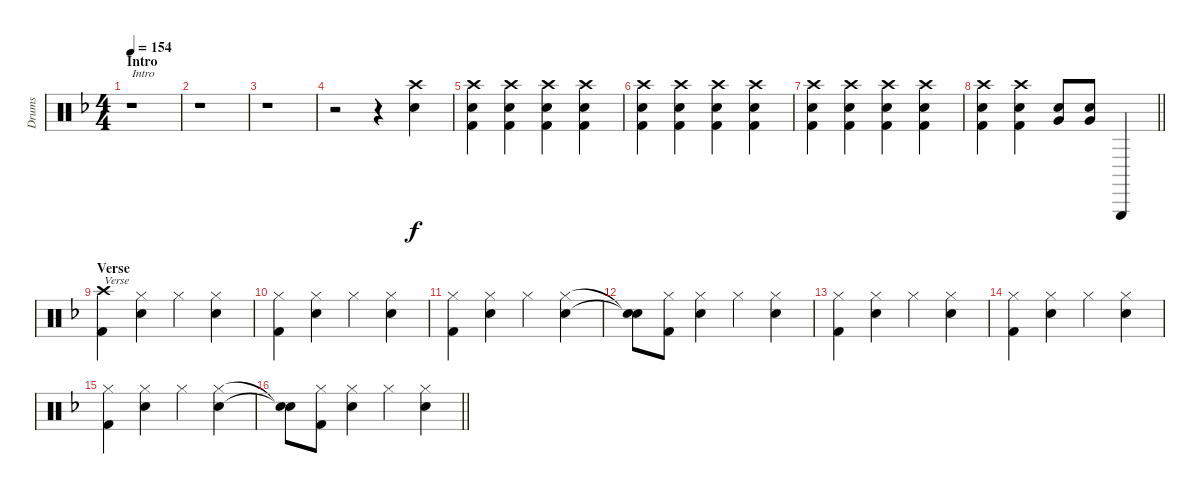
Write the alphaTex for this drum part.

\track ("Drums" "Drums") {instrument percussion}
\staff {score}
\articulation defaults
\ts (4 4)
\section ("" "Intro")
\tempo 154
\clef neutral
\ks f
r.1{txt "Intro" dy f} |
r.1 |
r.1 |
r.2 r.4 ("Crash high (hit)" "Snare (hit) 2").4 |
("Crash high (hit)" "Snare (hit) 2" "Kick (hit) 2").4 ("Crash high (hit)" "Snare (hit) 2" "Kick (hit) 2").4 ("Crash high (hit)" "Snare (hit) 2" "Kick (hit) 2").4 ("Crash high (hit)" "Snare (hit) 2" "Kick (hit) 2").4 |
("Crash high (hit)" "Snare (hit) 2" "Kick (hit) 2").4 ("Crash high (hit)" "Snare (hit) 2" "Kick (hit) 2").4 ("Crash high (hit)" "Snare (hit) 2" "Kick (hit) 2").4 ("Crash high (hit)" "Snare (hit) 2" "Kick (hit) 2").4 |
("Crash high (hit)" "Snare (hit) 2" "Kick (hit) 2").4 ("Crash high (hit)" "Snare (hit) 2" "Kick (hit) 2").4 ("Crash high (hit)" "Snare (hit) 2" "Kick (hit) 2").4 ("Crash high (hit)" "Snare (hit) 2" "Kick (hit) 2").4 |
\barLineRight lightlight
("Crash high (hit)" "Snare (hit) 2" "Kick (hit) 2").4 ("Crash high (hit)" "Snare (hit) 2" "Kick (hit) 2").4 ("Snare (hit) 2" "Very Low Tom (hit)").8 ("Snare (hit) 2" "Very Low Tom (hit)").8 "Triangle (hit)".4 |
\section ("" "Verse")
("Crash high (hit)" "Kick (hit) 2").4{txt "Verse"} ("Hi-Hat (closed)" "Snare (hit) 2").4 "Hi-Hat (closed)".4 ("Hi-Hat (closed)" "Snare (hit) 2").4 |
("Hi-Hat (closed)" "Kick (hit) 2").4 ("Hi-Hat (closed)" "Snare (hit) 2").4 "Hi-Hat (closed)".4 ("Hi-Hat (closed)" "Snare (hit) 2").4 |
("Hi-Hat (closed)" "Kick (hit) 2").4 ("Hi-Hat (closed)" "Snare (hit) 2").4 "Hi-Hat (closed)".4 ("Hi-Hat (closed)" "Snare (hit) 2").4 |
("Snare (hit)"{t} "Snare (hit)"{t}).8 ("Hi-Hat (closed)" "Kick (hit) 2").8 ("Hi-Hat (closed)" "Snare (hit) 2").4 "Hi-Hat (closed)".4 ("Hi-Hat (closed)" "Snare (hit) 2").4 |
("Hi-Hat (closed)" "Kick (hit) 2").4 ("Hi-Hat (closed)" "Snare (hit) 2").4 "Hi-Hat (closed)".4 ("Hi-Hat (closed)" "Snare (hit) 2").4 |
("Hi-Hat (closed)" "Kick (hit) 2").4 ("Hi-Hat (closed)" "Snare (hit) 2").4 "Hi-Hat (closed)".4 ("Hi-Hat (closed)" "Snare (hit) 2").4 |
("Hi-Hat (closed)" "Kick (hit) 2").4 ("Hi-Hat (closed)" "Snare (hit) 2").4 "Hi-Hat (closed)".4 ("Hi-Hat (closed)" "Snare (hit) 2").4 |
\barLineRight lightlight
("Snare (hit)"{t} "Snare (hit)"{t}).8 ("Hi-Hat (closed)" "Kick (hit) 2").8 ("Hi-Hat (closed)" "Snare (hit) 2").4 "Hi-Hat (closed)".4 ("Hi-Hat (closed)" "Snare (hit) 2").4
